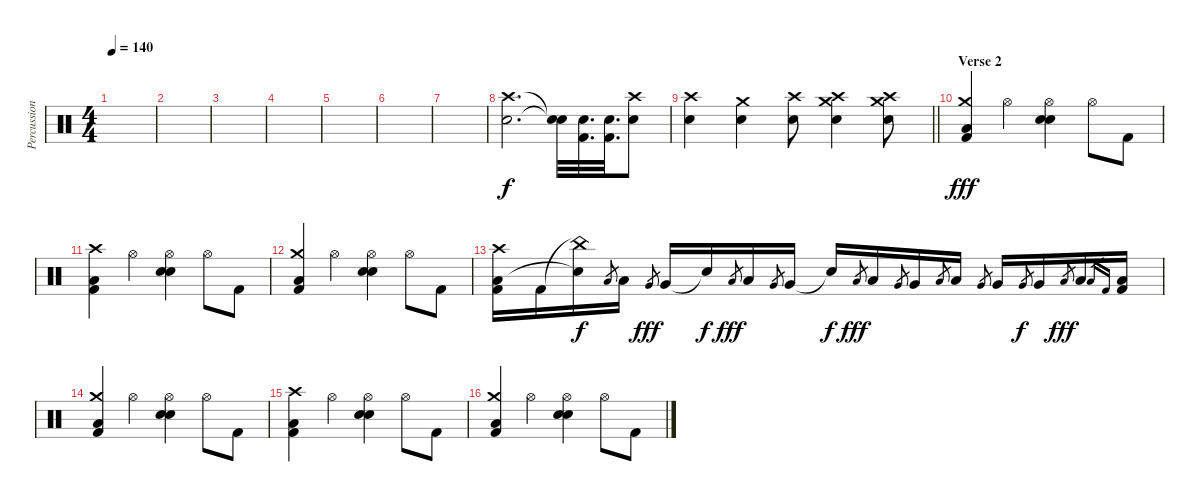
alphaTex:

\track ("Percussion" "Percussion") {instrument percussion}
\staff {score}
\articulation defaults
\ts (4 4)
\tempo 140
\clef neutral
\ks c
|
|
|
|
|
|
|
("Snare (hit) 2" "Crash high (hit)").2{d} ("Snare (hit)"{t} "Snare (hit)"{t}).32 ("Snare (hit) 2" "Kick (hit) 2").32{d} ("Snare (hit) 2" "Kick (hit) 2").32{d} ("Crash high (hit)" "Snare (hit) 2").8 |
\barLineRight lightlight
("Crash high (hit)" "Snare (hit) 2").4 ("Crash medium (hit)" "Snare (hit) 2").4 ("Crash high (hit)" "Snare (hit) 2").8 ("Crash medium (hit)" "Snare (hit) 2" "Crash high (hit)").4 ("Crash high (hit)" "Crash medium (hit)" "Snare (hit) 2").8 |
\section ("" "Verse 2")
("Crash medium (hit)" "Low Floor Tom (hit)" "Kick (hit) 2").4{dy fff} "Hi-Hat (open)".4 ("Hi-Hat (open)" "Snare (hit) 2" "Electric Snare (hit)").4 "Hi-Hat (open)".8 "Kick (hit) 2".8 |
("Crash high (hit)" "Low Floor Tom (hit)" "Kick (hit) 2").4 "Hi-Hat (open)".4 ("Hi-Hat (open)" "Snare (hit) 2" "Electric Snare (hit)").4 "Hi-Hat (open)".8 "Kick (hit) 2".8 |
("Crash medium (hit)" "Low Floor Tom (hit)" "Kick (hit) 2").4 "Hi-Hat (open)".4 ("Hi-Hat (open)" "Snare (hit) 2" "Electric Snare (hit)").4 "Hi-Hat (open)".8 "Kick (hit) 2".8 |
("Crash high (hit)" "Low Floor Tom (hit)" "Kick (hit) 2").16 "Kick (hit) 2".16 ("China (hit)"{t} "Snare (hit)"{t}).16{dy f} "Low Floor Tom (hit)".8{gr} "Low Floor Tom (hit)".16 "Very Low Tom (hit)".8{gr dy fff} "Very Low Tom (hit)".16 "Snare (hit)"{t}.16{dy f} "Low Floor Tom (hit)".8{gr dy fff} "Low Floor Tom (hit)".16 "Very Low Tom (hit)".8{gr} "Very Low Tom (hit)".16 "Snare (hit) 2"{t}.16{dy f} "Low Floor Tom (hit)".8{gr dy fff} "Low Floor Tom (hit)".16 "Very Low Tom (hit)".8{gr} "Very Low Tom (hit)".16 "Low Floor Tom (hit)".8{gr} "Low Floor Tom (hit)".16 "Very Low Tom (hit)".8{gr} "Very Low Tom (hit)".16 "Very Low Tom (hit)".8{gr dy f} "Very Low Tom (hit)".16 "Low Floor Tom (hit)".8{gr dy fff} "Low Floor Tom (hit)".16 "Low Floor Tom (hit)".16{gr} "Kick (hit) 2".16{gr} ("Low Floor Tom (hit)" "Kick (hit) 2").16 |
("Crash medium (hit)" "Low Floor Tom (hit)" "Kick (hit) 2").4 "Hi-Hat (open)".4 ("Hi-Hat (open)" "Snare (hit) 2" "Electric Snare (hit)").4 "Hi-Hat (open)".8 "Kick (hit) 2".8 |
("Crash high (hit)" "Low Floor Tom (hit)" "Kick (hit) 2").4 "Hi-Hat (open)".4 ("Hi-Hat (open)" "Snare (hit) 2" "Electric Snare (hit)").4 "Hi-Hat (open)".8 "Kick (hit) 2".8 |
("Crash medium (hit)" "Low Floor Tom (hit)" "Kick (hit) 2").4 "Hi-Hat (open)".4 ("Hi-Hat (open)" "Snare (hit) 2" "Electric Snare (hit)").4 "Hi-Hat (open)".8 "Kick (hit) 2".8
